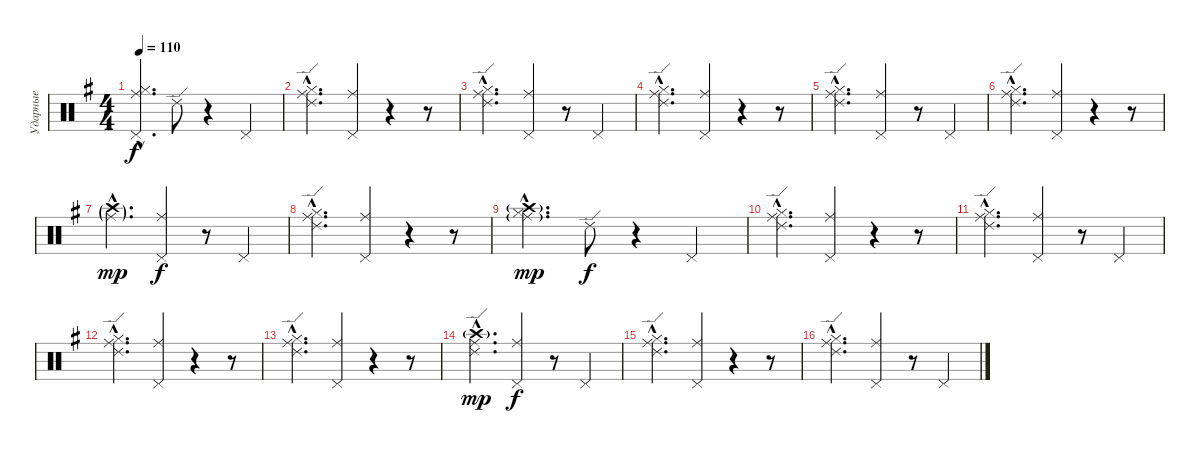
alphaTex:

\track ("Ударные" "Ударные") {instrument percussion}
\staff {score}
\articulation defaults
\ts (4 4)
\tempo 110
\clef neutral
\ks eminor
("Pedal Hi-Hat (hit)"{hac} "Hi-Hat (closed)"{hac} "Ride (middle)"{hac}).4{d dy f} "Ride (edge) 2".8 r.4 "Pedal Hi-Hat (hit)".4 |
("Ride (edge) 2"{hac} "Hi-Hat (closed)"{hac} "Ride (middle)"{hac}).4{d} ("Ride (middle)" "Pedal Hi-Hat (hit)").4 r.4 r.8 |
("Ride (edge) 2"{hac} "Hi-Hat (closed)"{hac} "Ride (middle)"{hac}).4{d} ("Ride (middle)" "Pedal Hi-Hat (hit)").4 r.8 "Pedal Hi-Hat (hit)".4 |
("Ride (edge) 2"{hac} "Hi-Hat (closed)"{hac} "Ride (middle)"{hac}).4{d} ("Ride (middle)" "Pedal Hi-Hat (hit)").4 r.4 r.8 |
("Ride (edge) 2"{hac} "Hi-Hat (closed)"{hac} "Ride (middle)"{hac}).4{d} ("Ride (middle)" "Pedal Hi-Hat (hit)").4 r.8 "Pedal Hi-Hat (hit)".4 |
("Ride (edge) 2"{hac} "Hi-Hat (closed)"{hac} "Ride (middle)"{hac}).4{d} ("Ride (middle)" "Pedal Hi-Hat (hit)").4 r.4 r.8 |
("Ride (middle)"{g hac} "Crash high (hit)"{g hac}).4{d dy mp} ("Ride (middle)" "Pedal Hi-Hat (hit)").4{dy f} r.8 "Pedal Hi-Hat (hit)".4 |
("Ride (edge) 2"{hac} "Hi-Hat (closed)"{hac} "Ride (middle)"{hac}).4{d} ("Ride (middle)" "Pedal Hi-Hat (hit)").4 r.4 r.8 |
("Hi-Hat (closed)"{hac} "Ride (middle)"{g hac} "Crash high (hit)"{g hac}).4{d dy mp} "Ride (edge) 2".8{dy f} r.4 "Pedal Hi-Hat (hit)".4 |
("Ride (edge) 2"{hac} "Hi-Hat (closed)"{hac} "Ride (middle)"{hac}).4{d} ("Ride (middle)" "Pedal Hi-Hat (hit)").4 r.4 r.8 |
("Ride (edge) 2"{hac} "Hi-Hat (closed)"{hac} "Ride (middle)"{hac}).4{d} ("Ride (middle)" "Pedal Hi-Hat (hit)").4 r.8 "Pedal Hi-Hat (hit)".4 |
("Ride (edge) 2"{hac} "Hi-Hat (closed)"{hac} "Ride (middle)"{hac}).4{d} ("Ride (middle)" "Pedal Hi-Hat (hit)").4 r.4 r.8 |
("Ride (edge) 2"{hac} "Hi-Hat (closed)"{hac} "Ride (middle)"{hac}).4{d} ("Ride (middle)" "Pedal Hi-Hat (hit)").4 r.4 r.8 |
("Ride (edge) 2"{hac} "Ride (middle)"{hac} "Crash high (hit)"{g hac}).4{d dy mp} ("Ride (middle)" "Pedal Hi-Hat (hit)").4{dy f} r.8 "Pedal Hi-Hat (hit)".4 |
("Ride (edge) 2"{hac} "Hi-Hat (closed)"{hac} "Ride (middle)"{hac}).4{d} ("Ride (middle)" "Pedal Hi-Hat (hit)").4 r.4 r.8 |
("Ride (edge) 2"{hac} "Hi-Hat (closed)"{hac} "Ride (middle)"{hac}).4{d} ("Ride (middle)" "Pedal Hi-Hat (hit)").4 r.8 "Pedal Hi-Hat (hit)".4
